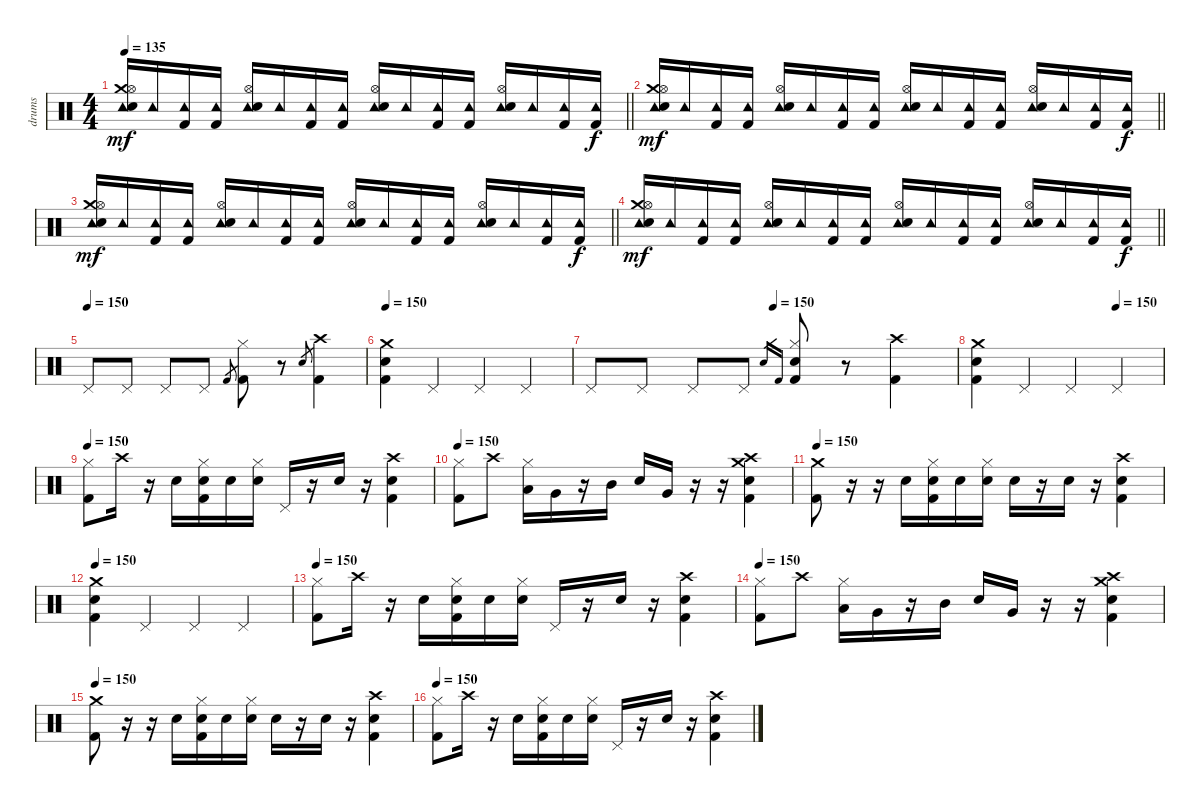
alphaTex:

\track ("drums" "drums") {instrument percussion}
\staff {score}
\articulation defaults
\ts (4 4)
\tempo 135
\clef neutral
\barLineRight lightlight
\ks c
("Tambourine (hit)" "Crash medium (hit)" "Hi-Hat (open)" "Electric Snare (hit)").16{dy mf} "Tambourine (hit)".16 ("Tambourine (hit)" "Kick (hit) 2").16 ("Tambourine (hit)" "Kick (hit) 2").16 ("Tambourine (hit)" "Hi-Hat (open)" "Electric Snare (hit)").16 "Tambourine (hit)".16 ("Tambourine (hit)" "Kick (hit) 2").16 ("Tambourine (hit)" "Kick (hit) 2").16 ("Tambourine (hit)" "Hi-Hat (open)" "Electric Snare (hit)").16 "Tambourine (hit)".16 ("Tambourine (hit)" "Kick (hit) 2").16 ("Tambourine (hit)" "Kick (hit) 2").16 ("Tambourine (hit)" "Hi-Hat (open)" "Electric Snare (hit)").16 "Tambourine (hit)".16 ("Tambourine (hit)" "Kick (hit) 2").16 ("Tambourine (hit)" "Kick (hit) 2").16{dy f} |
\barLineRight lightlight
("Tambourine (hit)" "Crash medium (hit)" "Hi-Hat (open)" "Electric Snare (hit)").16{dy mf} "Tambourine (hit)".16 ("Tambourine (hit)" "Kick (hit) 2").16 ("Tambourine (hit)" "Kick (hit) 2").16 ("Tambourine (hit)" "Hi-Hat (open)" "Electric Snare (hit)").16 "Tambourine (hit)".16 ("Tambourine (hit)" "Kick (hit) 2").16 ("Tambourine (hit)" "Kick (hit) 2").16 ("Tambourine (hit)" "Hi-Hat (open)" "Electric Snare (hit)").16 "Tambourine (hit)".16 ("Tambourine (hit)" "Kick (hit) 2").16 ("Tambourine (hit)" "Kick (hit) 2").16 ("Tambourine (hit)" "Hi-Hat (open)" "Electric Snare (hit)").16 "Tambourine (hit)".16 ("Tambourine (hit)" "Kick (hit) 2").16 ("Tambourine (hit)" "Kick (hit) 2").16{dy f} |
\barLineRight lightlight
("Tambourine (hit)" "Crash medium (hit)" "Hi-Hat (open)" "Electric Snare (hit)").16{dy mf} "Tambourine (hit)".16 ("Tambourine (hit)" "Kick (hit) 2").16 ("Tambourine (hit)" "Kick (hit) 2").16 ("Tambourine (hit)" "Hi-Hat (open)" "Electric Snare (hit)").16 "Tambourine (hit)".16 ("Tambourine (hit)" "Kick (hit) 2").16 ("Tambourine (hit)" "Kick (hit) 2").16 ("Tambourine (hit)" "Hi-Hat (open)" "Electric Snare (hit)").16 "Tambourine (hit)".16 ("Tambourine (hit)" "Kick (hit) 2").16 ("Tambourine (hit)" "Kick (hit) 2").16 ("Tambourine (hit)" "Hi-Hat (open)" "Electric Snare (hit)").16 "Tambourine (hit)".16 ("Tambourine (hit)" "Kick (hit) 2").16 ("Tambourine (hit)" "Kick (hit) 2").16{dy f} |
\barLineRight lightlight
("Tambourine (hit)" "Crash medium (hit)" "Hi-Hat (open)" "Electric Snare (hit)").16{dy mf} "Tambourine (hit)".16 ("Tambourine (hit)" "Kick (hit) 2").16 ("Tambourine (hit)" "Kick (hit) 2").16 ("Tambourine (hit)" "Hi-Hat (open)" "Electric Snare (hit)").16 "Tambourine (hit)".16 ("Tambourine (hit)" "Kick (hit) 2").16 ("Tambourine (hit)" "Kick (hit) 2").16 ("Tambourine (hit)" "Hi-Hat (open)" "Electric Snare (hit)").16 "Tambourine (hit)".16 ("Tambourine (hit)" "Kick (hit) 2").16 ("Tambourine (hit)" "Kick (hit) 2").16 ("Tambourine (hit)" "Hi-Hat (open)" "Electric Snare (hit)").16 "Tambourine (hit)".16 ("Tambourine (hit)" "Kick (hit) 2").16 ("Tambourine (hit)" "Kick (hit) 2").16{dy f} |
\tempo (150)
"Pedal Hi-Hat (hit)".8 "Pedal Hi-Hat (hit)".8 "Pedal Hi-Hat (hit)".8 "Pedal Hi-Hat (hit)".8 "Kick (hit) 2".8{gr} ("Hi-Hat (closed)" "Kick (hit) 2").8 r.8 "Snare (hit) 2".8{gr} ("Crash high (hit)" "Kick (hit) 2").4 |
\tempo 150
("Crash medium (hit)" "Snare (hit) 2" "Kick (hit) 2").4 "Pedal Hi-Hat (hit)".4 "Pedal Hi-Hat (hit)".4 "Pedal Hi-Hat (hit)".4 |
\tempo (150 0.5)
"Pedal Hi-Hat (hit)".8 "Pedal Hi-Hat (hit)".8 "Pedal Hi-Hat (hit)".8 "Pedal Hi-Hat (hit)".8 "Snare (hit) 2".16{gr} "Kick (hit) 2".16{gr} ("Hi-Hat (closed)" "Snare (hit) 2" "Kick (hit) 2").8 r.8 ("Crash high (hit)" "Kick (hit) 2").4 |
\tempo (150 0.75)
("Crash medium (hit)" "Snare (hit) 2" "Kick (hit) 2").4 "Pedal Hi-Hat (hit)".4 "Pedal Hi-Hat (hit)".4 "Pedal Hi-Hat (hit)".4 |
\tempo 150
("Hi-Hat (closed)" "Kick (hit) 2").8 "Crash high (hit)".16 r.16 "Snare (hit) 2".16 ("Hi-Hat (closed)" "Snare (hit) 2" "Kick (hit) 2").16 "Snare (hit) 2".16 ("Hi-Hat (closed)" "Snare (hit) 2").16 "Pedal Hi-Hat (hit)".16 r.16 "Snare (hit) 2".16 r.16 ("Crash high (hit)" "Snare (hit) 2" "Kick (hit) 2").4 |
\tempo 150
("Hi-Hat (closed)" "Kick (hit) 2").8 "Crash high (hit)".8 ("Hi-Hat (closed)" "Low Floor Tom (hit)").16 "Very Low Tom (hit)".16 r.16 "Mid Tom (hit)".16 "Snare (hit) 2".16 "Very Low Tom (hit)".16 r.16 r.16 ("Crash high (hit)" "Snare (hit) 2" "Crash medium (hit)" "Kick (hit) 2").4 |
\tempo 150
("Crash medium (hit)" "Kick (hit) 2").8 r.16 r.16 "Snare (hit) 2".16 ("Hi-Hat (closed)" "Snare (hit) 2" "Kick (hit) 2").16 "Snare (hit) 2".16 ("Hi-Hat (closed)" "Snare (hit) 2").16 "Snare (hit) 2".16 r.16 "Snare (hit) 2".16 r.16 ("Crash high (hit)" "Snare (hit) 2" "Kick (hit) 2").4 |
\tempo 150
("Crash medium (hit)" "Snare (hit) 2" "Kick (hit) 2").4 "Pedal Hi-Hat (hit)".4 "Pedal Hi-Hat (hit)".4 "Pedal Hi-Hat (hit)".4 |
\tempo 150
("Hi-Hat (closed)" "Kick (hit) 2").8 "Crash high (hit)".16 r.16 "Snare (hit) 2".16 ("Hi-Hat (closed)" "Snare (hit) 2" "Kick (hit) 2").16 "Snare (hit) 2".16 ("Hi-Hat (closed)" "Snare (hit) 2").16 "Pedal Hi-Hat (hit)".16 r.16 "Snare (hit) 2".16 r.16 ("Crash high (hit)" "Snare (hit) 2" "Kick (hit) 2").4 |
\tempo 150
("Hi-Hat (closed)" "Kick (hit) 2").8 "Crash high (hit)".8 ("Hi-Hat (closed)" "Low Floor Tom (hit)").16 "Very Low Tom (hit)".16 r.16 "Mid Tom (hit)".16 "Snare (hit) 2".16 "Very Low Tom (hit)".16 r.16 r.16 ("Crash high (hit)" "Snare (hit) 2" "Crash medium (hit)" "Kick (hit) 2").4 |
\tempo 150
("Crash medium (hit)" "Kick (hit) 2").8 r.16 r.16 "Snare (hit) 2".16 ("Hi-Hat (closed)" "Snare (hit) 2" "Kick (hit) 2").16 "Snare (hit) 2".16 ("Hi-Hat (closed)" "Snare (hit) 2").16 "Snare (hit) 2".16 r.16 "Snare (hit) 2".16 r.16 ("Crash high (hit)" "Snare (hit) 2" "Kick (hit) 2").4 |
\tempo 150
("Hi-Hat (closed)" "Kick (hit) 2").8 "Crash high (hit)".16 r.16 "Snare (hit) 2".16 ("Hi-Hat (closed)" "Snare (hit) 2" "Kick (hit) 2").16 "Snare (hit) 2".16 ("Hi-Hat (closed)" "Snare (hit) 2").16 "Pedal Hi-Hat (hit)".16 r.16 "Snare (hit) 2".16 r.16 ("Crash high (hit)" "Snare (hit) 2" "Kick (hit) 2").4
